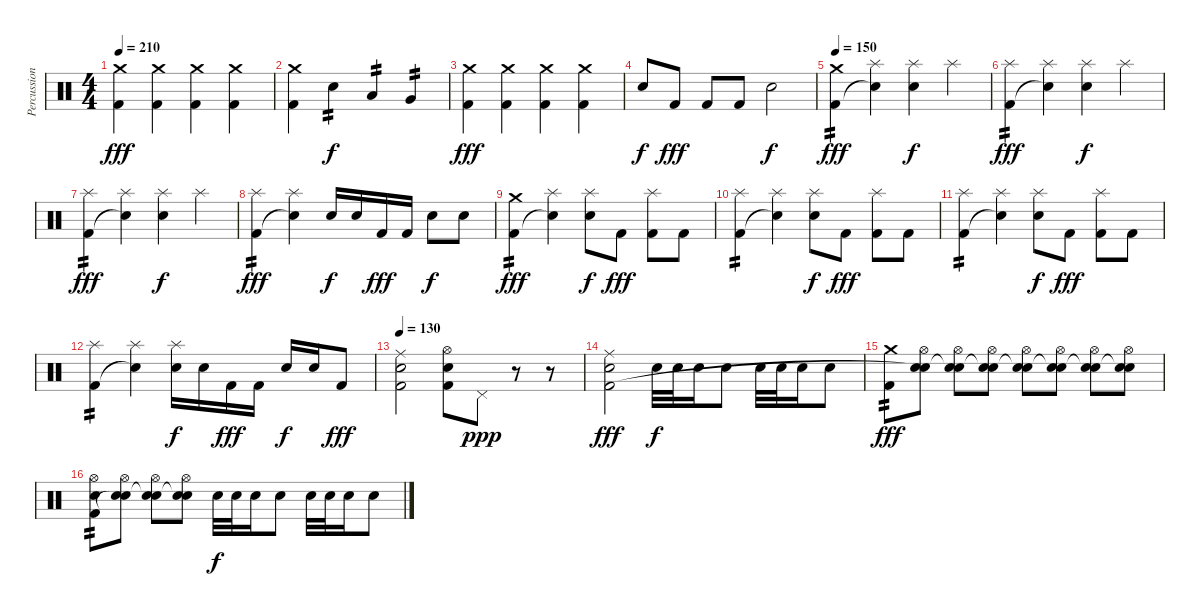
\track ("Percussion" "Percussion") {instrument percussion}
\staff {score}
\articulation defaults
\ts (4 4)
\tempo 210
\clef neutral
\ks c
("Crash medium (hit)" "Kick (hit) 2").4{dy fff} ("Crash medium (hit)" "Kick (hit) 2").4 ("Crash medium (hit)" "Kick (hit) 2").4 ("Crash medium (hit)" "Kick (hit) 2").4 |
("Crash medium (hit)" "Kick (hit) 2").4 "Electric Snare (hit)".4{tp 2 dy f} "Low Tom (hit)".4{tp 2} "Very Low Tom (hit)".4{tp 2} |
("Crash medium (hit)" "Kick (hit) 2").4{dy fff} ("Crash medium (hit)" "Kick (hit) 2").4 ("Crash medium (hit)" "Kick (hit) 2").4 ("Crash medium (hit)" "Kick (hit) 2").4 |
"Electric Snare (hit)".8{dy f} "Kick (hit) 2".8{dy fff} "Kick (hit) 2".8 "Kick (hit) 2".8 "Electric Snare (hit)".2{dy f} |
\tempo 150
("Crash medium (hit)" "Kick (hit) 2").4{tp 2 dy fff} ("Splash (hit)" "Snare (hit)"{t}).4 ("Splash (hit)" "Electric Snare (hit)").4{dy f} "Splash (hit)".4 |
("Splash (hit)" "Kick (hit) 2").4{tp 2 dy fff} ("Splash (hit)" "Snare (hit)"{t}).4 ("Splash (hit)" "Electric Snare (hit)").4{dy f} "Splash (hit)".4 |
("Splash (hit)" "Kick (hit) 2").4{tp 2 dy fff} ("Splash (hit)" "Snare (hit)"{t}).4 ("Splash (hit)" "Electric Snare (hit)").4{dy f} "Splash (hit)".4 |
("Splash (hit)" "Kick (hit) 2").4{tp 2 dy fff} ("Splash (hit)" "Snare (hit)"{t}).4 "Electric Snare (hit)".16{dy f} "Electric Snare (hit)".16 "Kick (hit) 2".16{dy fff} "Kick (hit) 2".16 "Electric Snare (hit)".8{dy f} "Electric Snare (hit)".8 |
("Crash medium (hit)" "Kick (hit) 2").4{tp 2 dy fff} ("Splash (hit)" "Snare (hit)"{t}).4 ("Splash (hit)" "Electric Snare (hit)").8{dy f} "Kick (hit) 2".8{dy fff} ("Splash (hit)" "Kick (hit) 2").8 "Kick (hit) 2".8 |
("Splash (hit)" "Kick (hit) 2").4{tp 2} ("Splash (hit)" "Snare (hit)"{t}).4 ("Splash (hit)" "Electric Snare (hit)").8{dy f} "Kick (hit) 2".8{dy fff} ("Splash (hit)" "Kick (hit) 2").8 "Kick (hit) 2".8 |
("Splash (hit)" "Kick (hit) 2").4{tp 2} ("Splash (hit)" "Snare (hit)"{t}).4 ("Splash (hit)" "Electric Snare (hit)").8{dy f} "Kick (hit) 2".8{dy fff} ("Splash (hit)" "Kick (hit) 2").8 "Kick (hit) 2".8 |
("Splash (hit)" "Kick (hit) 2").4{tp 2} ("Splash (hit)" "Snare (hit)"{t}).4 ("Splash (hit)" "Electric Snare (hit)").16{dy f} "Electric Snare (hit)".16 "Kick (hit) 2".16{dy fff} "Kick (hit) 2".16 "Electric Snare (hit)".16{dy f} "Electric Snare (hit)".16 "Kick (hit) 2".8{dy fff} |
\tempo 130
("Ride (middle)" "Electric Snare (hit)" "Kick (hit) 2").2 ("Hi-Hat (open)" "Electric Snare (hit)" "Kick (hit) 2").8 "Pedal Hi-Hat (hit)".8{dy ppp} r.8 r.8 |
("Ride (middle)" "Electric Snare (hit)" "Kick (hit) 2").2{dy fff} "Electric Snare (hit)".32{dy f} "Electric Snare (hit)".32 "Electric Snare (hit)".16 "Electric Snare (hit)".8 "Electric Snare (hit)".32 "Electric Snare (hit)".32 "Electric Snare (hit)".16 "Electric Snare (hit)".8 |
("Crash medium (hit)" "Kick (hit) 2").8{tp 2 dy fff} ("Hi-Hat (open)" "Electric Snare (hit)" "Snare (hit)"{t}).8 ("Hi-Hat (open)" "Electric Snare (hit)" "Snare (hit)"{t}).8 ("Hi-Hat (open)" "Electric Snare (hit)" "Snare (hit)"{t}).8 ("Hi-Hat (open)" "Electric Snare (hit)" "Snare (hit)"{t}).8 ("Hi-Hat (open)" "Electric Snare (hit)" "Snare (hit)"{t}).8 ("Hi-Hat (open)" "Electric Snare (hit)" "Snare (hit)"{t}).8 ("Hi-Hat (open)" "Electric Snare (hit)" "Snare (hit)"{t}).8 |
("Hi-Hat (open)" "Electric Snare (hit)" "Kick (hit) 2").8{tp 2} ("Hi-Hat (open)" "Electric Snare (hit)" "Snare (hit)"{t}).8 ("Hi-Hat (open)" "Electric Snare (hit)" "Snare (hit)"{t}).8 ("Hi-Hat (open)" "Electric Snare (hit)" "Snare (hit)"{t}).8 "Electric Snare (hit)".32{dy f} "Electric Snare (hit)".32 "Electric Snare (hit)".16 "Electric Snare (hit)".8 "Electric Snare (hit)".32 "Electric Snare (hit)".32 "Electric Snare (hit)".16 "Electric Snare (hit)".8
